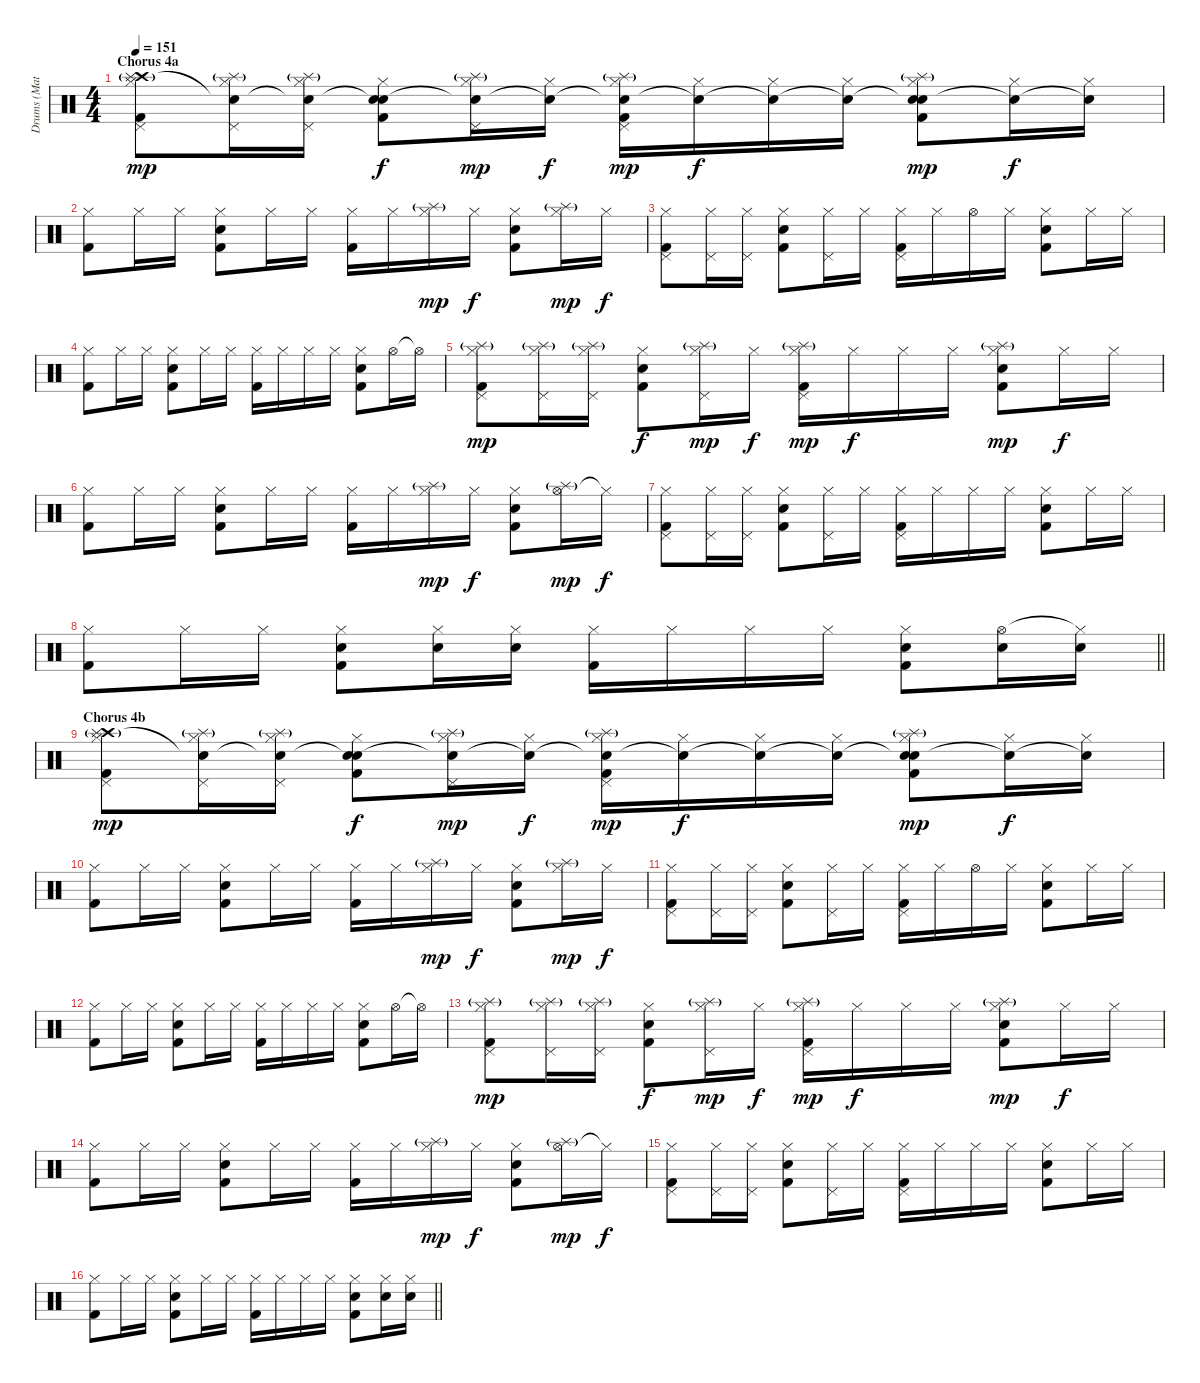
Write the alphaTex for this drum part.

\track ("Drums (Matt Tong)" "Drums (Mat") {instrument percussion}
\staff {score}
\articulation defaults
\ts (4 4)
\section ("" "Chorus 4a")
\tempo 151
\clef neutral
\ks c
("Hi-Hat (closed)" "Crash high (hit)" "Splash (hit)"{g} "Pedal Hi-Hat (hit)" "Kick (hit) 2").8{dy mp} ("Hi-Hat (closed)" "Snare (hit)"{t} "Splash (hit)"{g} "Pedal Hi-Hat (hit)").16 ("Hi-Hat (closed)" "Snare (hit)"{t} "Splash (hit)"{g} "Pedal Hi-Hat (hit)").16 ("Hi-Hat (closed)" "Snare (hit)"{t} "Electric Snare (hit)" "Kick (hit) 2").8{dy f} ("Hi-Hat (closed)" "Snare (hit)"{t} "Splash (hit)"{g} "Pedal Hi-Hat (hit)").16{dy mp} ("Hi-Hat (closed)" "Snare (hit)"{t}).16{dy f} ("Hi-Hat (closed)" "Snare (hit)"{t} "Splash (hit)"{g} "Pedal Hi-Hat (hit)" "Kick (hit) 2").16{dy mp} ("Hi-Hat (closed)" "Snare (hit)"{t}).16{dy f} ("Hi-Hat (closed)" "Snare (hit)"{t}).16 ("Hi-Hat (closed)" "Snare (hit)"{t}).16 ("Hi-Hat (closed)" "Snare (hit)"{t} "Splash (hit)"{g} "Electric Snare (hit)" "Kick (hit) 2").8{dy mp} ("Hi-Hat (closed)" "Snare (hit)"{t}).16{dy f} ("Hi-Hat (closed)" "Snare (hit)"{t}).16 |
("Hi-Hat (closed)" "Kick (hit) 2").8 "Hi-Hat (closed)".16 "Hi-Hat (closed)".16 ("Hi-Hat (closed)" "Electric Snare (hit)" "Kick (hit) 2").8 "Hi-Hat (closed)".16 "Hi-Hat (closed)".16 ("Hi-Hat (closed)" "Kick (hit) 2").16 "Hi-Hat (closed)".16 ("Hi-Hat (closed)" "Splash (hit)"{g}).16{dy mp} "Hi-Hat (closed)".16{dy f} ("Hi-Hat (closed)" "Electric Snare (hit)" "Kick (hit) 2").8 ("Hi-Hat (closed)" "Splash (hit)"{g}).16{dy mp} "Hi-Hat (closed)".16{dy f} |
("Hi-Hat (closed)" "Pedal Hi-Hat (hit)" "Kick (hit) 2").8 ("Hi-Hat (closed)" "Pedal Hi-Hat (hit)").16 ("Hi-Hat (closed)" "Pedal Hi-Hat (hit)").16 ("Hi-Hat (closed)" "Electric Snare (hit)" "Kick (hit) 2").8 ("Hi-Hat (closed)" "Pedal Hi-Hat (hit)").16 "Hi-Hat (closed)".16 ("Hi-Hat (closed)" "Pedal Hi-Hat (hit)" "Kick (hit) 2").16 "Hi-Hat (closed)".16 "Hi-Hat (open)".16 "Hi-Hat (closed)".16 ("Hi-Hat (closed)" "Electric Snare (hit)" "Kick (hit) 2").8 "Hi-Hat (closed)".16 "Hi-Hat (closed)".16 |
("Hi-Hat (closed)" "Kick (hit) 2").8 "Hi-Hat (closed)".16 "Hi-Hat (closed)".16 ("Hi-Hat (closed)" "Electric Snare (hit)" "Kick (hit) 2").8 "Hi-Hat (closed)".16 "Hi-Hat (closed)".16 ("Hi-Hat (closed)" "Kick (hit) 2").16 "Hi-Hat (closed)".16 "Hi-Hat (closed)".16 "Hi-Hat (closed)".16 ("Hi-Hat (closed)" "Electric Snare (hit)" "Kick (hit) 2").8 "Hi-Hat (open)".16 "Hi-Hat (open)"{t}.16 |
("Hi-Hat (closed)" "Splash (hit)"{g} "Pedal Hi-Hat (hit)" "Kick (hit) 2").8{dy mp} ("Hi-Hat (closed)" "Splash (hit)"{g} "Pedal Hi-Hat (hit)").16 ("Hi-Hat (closed)" "Splash (hit)"{g} "Pedal Hi-Hat (hit)").16 ("Hi-Hat (closed)" "Electric Snare (hit)" "Kick (hit) 2").8{dy f} ("Hi-Hat (closed)" "Splash (hit)"{g} "Pedal Hi-Hat (hit)").16{dy mp} "Hi-Hat (closed)".16{dy f} ("Hi-Hat (closed)" "Splash (hit)"{g} "Pedal Hi-Hat (hit)" "Kick (hit) 2").16{dy mp} "Hi-Hat (closed)".16{dy f} "Hi-Hat (closed)".16 "Hi-Hat (closed)".16 ("Hi-Hat (closed)" "Splash (hit)"{g} "Electric Snare (hit)" "Kick (hit) 2").8{dy mp} "Hi-Hat (closed)".16{dy f} "Hi-Hat (closed)".16 |
("Hi-Hat (closed)" "Kick (hit) 2").8 "Hi-Hat (closed)".16 "Hi-Hat (closed)".16 ("Hi-Hat (closed)" "Electric Snare (hit)" "Kick (hit) 2").8 "Hi-Hat (closed)".16 "Hi-Hat (closed)".16 ("Hi-Hat (closed)" "Kick (hit) 2").16 "Hi-Hat (closed)".16 ("Hi-Hat (closed)" "Splash (hit)"{g}).16{dy mp} "Hi-Hat (closed)".16{dy f} ("Hi-Hat (closed)" "Electric Snare (hit)" "Kick (hit) 2").8 ("Hi-Hat (open)" "Splash (hit)"{g}).16{dy mp} "Hi-Hat (closed)"{t}.16{dy f} |
("Hi-Hat (closed)" "Pedal Hi-Hat (hit)" "Kick (hit) 2").8 ("Hi-Hat (closed)" "Pedal Hi-Hat (hit)").16 ("Hi-Hat (closed)" "Pedal Hi-Hat (hit)").16 ("Hi-Hat (closed)" "Electric Snare (hit)" "Kick (hit) 2").8 ("Hi-Hat (closed)" "Pedal Hi-Hat (hit)").16 "Hi-Hat (closed)".16 ("Hi-Hat (closed)" "Pedal Hi-Hat (hit)" "Kick (hit) 2").16 "Hi-Hat (closed)".16 "Hi-Hat (closed)".16 "Hi-Hat (closed)".16 ("Hi-Hat (closed)" "Electric Snare (hit)" "Kick (hit) 2").8 "Hi-Hat (closed)".16 "Hi-Hat (closed)".16 |
\barLineRight lightlight
("Hi-Hat (closed)" "Kick (hit) 2").8 "Hi-Hat (closed)".16 "Hi-Hat (closed)".16 ("Hi-Hat (closed)" "Electric Snare (hit)" "Kick (hit) 2").8 ("Hi-Hat (closed)" "Electric Snare (hit)").16 ("Hi-Hat (closed)" "Electric Snare (hit)").16 ("Hi-Hat (closed)" "Kick (hit) 2").16 "Hi-Hat (closed)".16 "Hi-Hat (closed)".16 "Hi-Hat (closed)".16 ("Hi-Hat (closed)" "Electric Snare (hit)" "Kick (hit) 2").8 ("Hi-Hat (open)" "Electric Snare (hit)").16 ("Hi-Hat (closed)"{t} "Electric Snare (hit)").16 |
\section ("" "Chorus 4b")
("Hi-Hat (closed)" "Crash high (hit)" "Splash (hit)"{g} "Pedal Hi-Hat (hit)" "Kick (hit) 2").8{dy mp} ("Hi-Hat (closed)" "Snare (hit)"{t} "Splash (hit)"{g} "Pedal Hi-Hat (hit)").16 ("Hi-Hat (closed)" "Snare (hit)"{t} "Splash (hit)"{g} "Pedal Hi-Hat (hit)").16 ("Hi-Hat (closed)" "Snare (hit)"{t} "Electric Snare (hit)" "Kick (hit) 2").8{dy f} ("Hi-Hat (closed)" "Snare (hit)"{t} "Splash (hit)"{g} "Pedal Hi-Hat (hit)").16{dy mp} ("Hi-Hat (closed)" "Snare (hit)"{t}).16{dy f} ("Hi-Hat (closed)" "Snare (hit)"{t} "Splash (hit)"{g} "Pedal Hi-Hat (hit)" "Kick (hit) 2").16{dy mp} ("Hi-Hat (closed)" "Snare (hit)"{t}).16{dy f} ("Hi-Hat (closed)" "Snare (hit)"{t}).16 ("Hi-Hat (closed)" "Snare (hit)"{t}).16 ("Hi-Hat (closed)" "Snare (hit)"{t} "Splash (hit)"{g} "Electric Snare (hit)" "Kick (hit) 2").8{dy mp} ("Hi-Hat (closed)" "Snare (hit)"{t}).16{dy f} ("Hi-Hat (closed)" "Snare (hit)"{t}).16 |
("Hi-Hat (closed)" "Kick (hit) 2").8 "Hi-Hat (closed)".16 "Hi-Hat (closed)".16 ("Hi-Hat (closed)" "Electric Snare (hit)" "Kick (hit) 2").8 "Hi-Hat (closed)".16 "Hi-Hat (closed)".16 ("Hi-Hat (closed)" "Kick (hit) 2").16 "Hi-Hat (closed)".16 ("Hi-Hat (closed)" "Splash (hit)"{g}).16{dy mp} "Hi-Hat (closed)".16{dy f} ("Hi-Hat (closed)" "Electric Snare (hit)" "Kick (hit) 2").8 ("Hi-Hat (closed)" "Splash (hit)"{g}).16{dy mp} "Hi-Hat (closed)".16{dy f} |
("Hi-Hat (closed)" "Pedal Hi-Hat (hit)" "Kick (hit) 2").8 ("Hi-Hat (closed)" "Pedal Hi-Hat (hit)").16 ("Hi-Hat (closed)" "Pedal Hi-Hat (hit)").16 ("Hi-Hat (closed)" "Electric Snare (hit)" "Kick (hit) 2").8 ("Hi-Hat (closed)" "Pedal Hi-Hat (hit)").16 "Hi-Hat (closed)".16 ("Hi-Hat (closed)" "Pedal Hi-Hat (hit)" "Kick (hit) 2").16 "Hi-Hat (closed)".16 "Hi-Hat (open)".16 "Hi-Hat (closed)".16 ("Hi-Hat (closed)" "Electric Snare (hit)" "Kick (hit) 2").8 "Hi-Hat (closed)".16 "Hi-Hat (closed)".16 |
("Hi-Hat (closed)" "Kick (hit) 2").8 "Hi-Hat (closed)".16 "Hi-Hat (closed)".16 ("Hi-Hat (closed)" "Electric Snare (hit)" "Kick (hit) 2").8 "Hi-Hat (closed)".16 "Hi-Hat (closed)".16 ("Hi-Hat (closed)" "Kick (hit) 2").16 "Hi-Hat (closed)".16 "Hi-Hat (closed)".16 "Hi-Hat (closed)".16 ("Hi-Hat (closed)" "Electric Snare (hit)" "Kick (hit) 2").8 "Hi-Hat (open)".16 "Hi-Hat (open)"{t}.16 |
("Hi-Hat (closed)" "Splash (hit)"{g} "Pedal Hi-Hat (hit)" "Kick (hit) 2").8{dy mp} ("Hi-Hat (closed)" "Splash (hit)"{g} "Pedal Hi-Hat (hit)").16 ("Hi-Hat (closed)" "Splash (hit)"{g} "Pedal Hi-Hat (hit)").16 ("Hi-Hat (closed)" "Electric Snare (hit)" "Kick (hit) 2").8{dy f} ("Hi-Hat (closed)" "Splash (hit)"{g} "Pedal Hi-Hat (hit)").16{dy mp} "Hi-Hat (closed)".16{dy f} ("Hi-Hat (closed)" "Splash (hit)"{g} "Pedal Hi-Hat (hit)" "Kick (hit) 2").16{dy mp} "Hi-Hat (closed)".16{dy f} "Hi-Hat (closed)".16 "Hi-Hat (closed)".16 ("Hi-Hat (closed)" "Splash (hit)"{g} "Electric Snare (hit)" "Kick (hit) 2").8{dy mp} "Hi-Hat (closed)".16{dy f} "Hi-Hat (closed)".16 |
("Hi-Hat (closed)" "Kick (hit) 2").8 "Hi-Hat (closed)".16 "Hi-Hat (closed)".16 ("Hi-Hat (closed)" "Electric Snare (hit)" "Kick (hit) 2").8 "Hi-Hat (closed)".16 "Hi-Hat (closed)".16 ("Hi-Hat (closed)" "Kick (hit) 2").16 "Hi-Hat (closed)".16 ("Hi-Hat (closed)" "Splash (hit)"{g}).16{dy mp} "Hi-Hat (closed)".16{dy f} ("Hi-Hat (closed)" "Electric Snare (hit)" "Kick (hit) 2").8 ("Hi-Hat (open)" "Splash (hit)"{g}).16{dy mp} "Hi-Hat (closed)"{t}.16{dy f} |
("Hi-Hat (closed)" "Pedal Hi-Hat (hit)" "Kick (hit) 2").8 ("Hi-Hat (closed)" "Pedal Hi-Hat (hit)").16 ("Hi-Hat (closed)" "Pedal Hi-Hat (hit)").16 ("Hi-Hat (closed)" "Electric Snare (hit)" "Kick (hit) 2").8 ("Hi-Hat (closed)" "Pedal Hi-Hat (hit)").16 "Hi-Hat (closed)".16 ("Hi-Hat (closed)" "Pedal Hi-Hat (hit)" "Kick (hit) 2").16 "Hi-Hat (closed)".16 "Hi-Hat (closed)".16 "Hi-Hat (closed)".16 ("Hi-Hat (closed)" "Electric Snare (hit)" "Kick (hit) 2").8 "Hi-Hat (closed)".16 "Hi-Hat (closed)".16 |
\barLineRight lightlight
("Hi-Hat (closed)" "Kick (hit) 2").8 "Hi-Hat (closed)".16 "Hi-Hat (closed)".16 ("Hi-Hat (closed)" "Electric Snare (hit)" "Kick (hit) 2").8 "Hi-Hat (closed)".16 "Hi-Hat (closed)".16 ("Hi-Hat (closed)" "Kick (hit) 2").16 "Hi-Hat (closed)".16 "Hi-Hat (closed)".16 "Hi-Hat (closed)".16 ("Hi-Hat (closed)" "Electric Snare (hit)" "Kick (hit) 2").8 ("Hi-Hat (closed)" "Electric Snare (hit)").16 ("Hi-Hat (closed)" "Electric Snare (hit)").16
